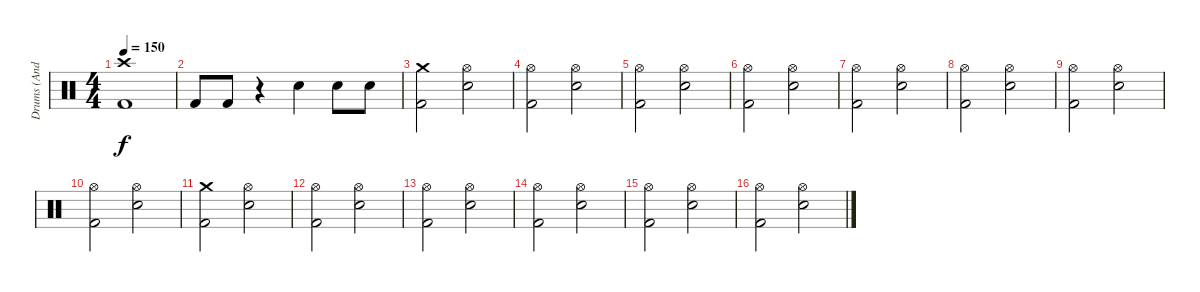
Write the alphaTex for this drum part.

\track ("Drums (Andy C)" "Drums (And") {instrument percussion}
\staff {score}
\articulation defaults
\ts (4 4)
\tempo 150
\clef neutral
\ks c
("Crash high (hit)" "Kick (hit) 2").1{dy f} |
"Kick (hit) 2".8 "Kick (hit) 2".8 r.4 "Electric Snare (hit)".4 "Electric Snare (hit)".8 "Electric Snare (hit)".8 |
("Crash medium (hit)" "Kick (hit) 2").2 ("Hi-Hat (open)" "Electric Snare (hit)").2 |
("Hi-Hat (open)" "Kick (hit) 2").2 ("Hi-Hat (open)" "Electric Snare (hit)").2 |
("Hi-Hat (open)" "Kick (hit) 2").2 ("Hi-Hat (open)" "Electric Snare (hit)").2 |
("Hi-Hat (open)" "Kick (hit) 2").2 ("Hi-Hat (open)" "Electric Snare (hit)").2 |
("Hi-Hat (open)" "Kick (hit) 2").2 ("Hi-Hat (open)" "Electric Snare (hit)").2 |
("Hi-Hat (open)" "Kick (hit) 2").2 ("Hi-Hat (open)" "Electric Snare (hit)").2 |
("Hi-Hat (open)" "Kick (hit) 2").2 ("Hi-Hat (open)" "Electric Snare (hit)").2 |
("Hi-Hat (open)" "Kick (hit) 2").2 ("Hi-Hat (open)" "Electric Snare (hit)").2 |
("Crash medium (hit)" "Kick (hit) 2").2 ("Hi-Hat (open)" "Electric Snare (hit)").2 |
("Hi-Hat (open)" "Kick (hit) 2").2 ("Hi-Hat (open)" "Electric Snare (hit)").2 |
("Hi-Hat (open)" "Kick (hit) 2").2 ("Hi-Hat (open)" "Electric Snare (hit)").2 |
("Hi-Hat (open)" "Kick (hit) 2").2 ("Hi-Hat (open)" "Electric Snare (hit)").2 |
("Hi-Hat (open)" "Kick (hit) 2").2 ("Hi-Hat (open)" "Electric Snare (hit)").2 |
("Hi-Hat (open)" "Kick (hit) 2").2 ("Hi-Hat (open)" "Electric Snare (hit)").2
